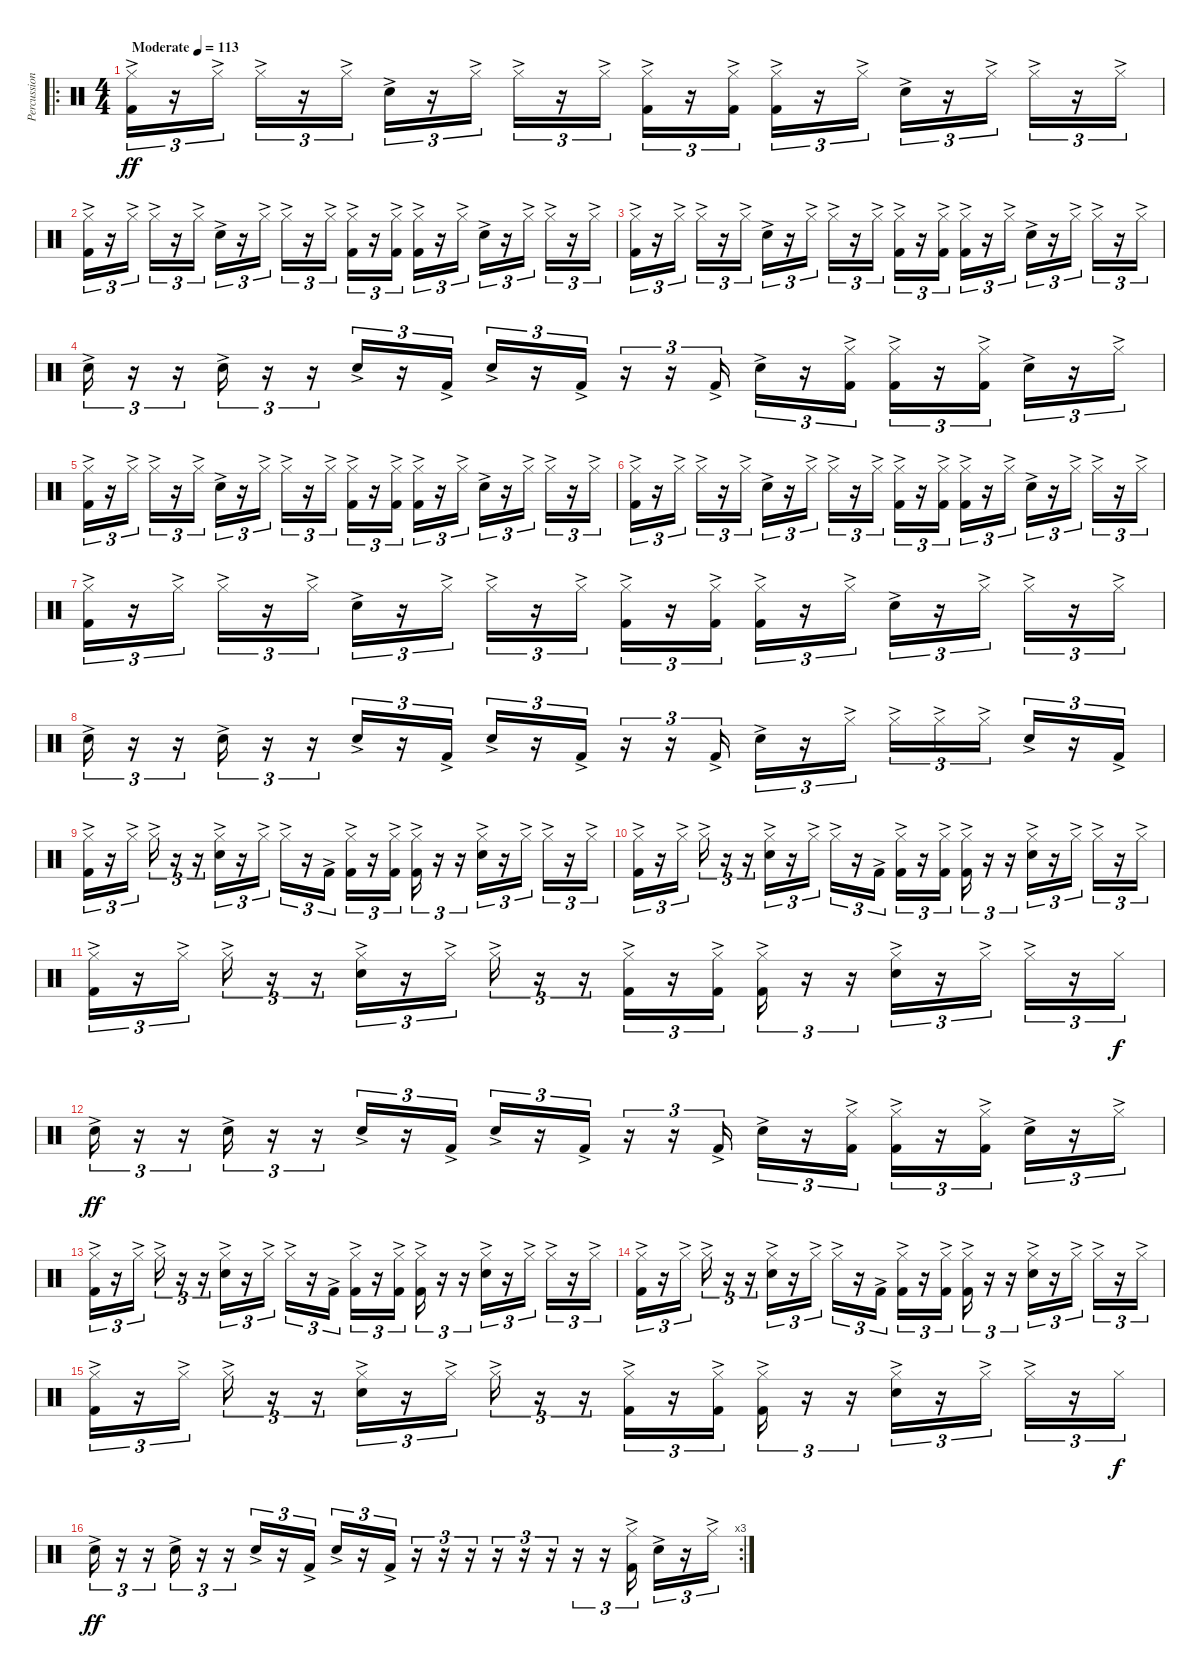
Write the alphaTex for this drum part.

\track ("Percussion" "Percussion") {instrument percussion}
\staff {score}
\articulation defaults
\ro
\ts (4 4)
\tempo (113 "Moderate")
\clef neutral
\ks c
("Hi-Hat (closed)"{ac} "Kick (hit) 2"{ac}).16{tu (3 2) dy ff} r.16{tu (3 2)} "Hi-Hat (closed)"{ac}.16{tu (3 2)} "Hi-Hat (closed)"{ac}.16{tu (3 2)} r.16{tu (3 2)} "Hi-Hat (closed)"{ac}.16{tu (3 2)} "Snare (hit) 2"{ac}.16{tu (3 2)} r.16{tu (3 2)} "Hi-Hat (closed)"{ac}.16{tu (3 2)} "Hi-Hat (closed)"{ac}.16{tu (3 2)} r.16{tu (3 2)} "Hi-Hat (closed)"{ac}.16{tu (3 2)} ("Hi-Hat (closed)"{ac} "Kick (hit) 2"{ac}).16{tu (3 2)} r.16{tu (3 2)} ("Hi-Hat (closed)"{ac} "Kick (hit) 2"{ac}).16{tu (3 2)} ("Hi-Hat (closed)"{ac} "Kick (hit) 2"{ac}).16{tu (3 2)} r.16{tu (3 2)} "Hi-Hat (closed)"{ac}.16{tu (3 2)} "Snare (hit) 2"{ac}.16{tu (3 2)} r.16{tu (3 2)} "Hi-Hat (closed)"{ac}.16{tu (3 2)} "Hi-Hat (closed)"{ac}.16{tu (3 2)} r.16{tu (3 2)} "Hi-Hat (closed)"{ac}.16{tu (3 2)} |
("Hi-Hat (closed)"{ac} "Kick (hit) 2"{ac}).16{tu (3 2)} r.16{tu (3 2)} "Hi-Hat (closed)"{ac}.16{tu (3 2)} "Hi-Hat (closed)"{ac}.16{tu (3 2)} r.16{tu (3 2)} "Hi-Hat (closed)"{ac}.16{tu (3 2)} "Snare (hit) 2"{ac}.16{tu (3 2)} r.16{tu (3 2)} "Hi-Hat (closed)"{ac}.16{tu (3 2)} "Hi-Hat (closed)"{ac}.16{tu (3 2)} r.16{tu (3 2)} "Hi-Hat (closed)"{ac}.16{tu (3 2)} ("Hi-Hat (closed)"{ac} "Kick (hit) 2"{ac}).16{tu (3 2)} r.16{tu (3 2)} ("Hi-Hat (closed)"{ac} "Kick (hit) 2"{ac}).16{tu (3 2)} ("Hi-Hat (closed)"{ac} "Kick (hit) 2"{ac}).16{tu (3 2)} r.16{tu (3 2)} "Hi-Hat (closed)"{ac}.16{tu (3 2)} "Snare (hit) 2"{ac}.16{tu (3 2)} r.16{tu (3 2)} "Hi-Hat (closed)"{ac}.16{tu (3 2)} "Hi-Hat (closed)"{ac}.16{tu (3 2)} r.16{tu (3 2)} "Hi-Hat (closed)"{ac}.16{tu (3 2)} |
("Hi-Hat (closed)"{ac} "Kick (hit) 2"{ac}).16{tu (3 2)} r.16{tu (3 2)} "Hi-Hat (closed)"{ac}.16{tu (3 2)} "Hi-Hat (closed)"{ac}.16{tu (3 2)} r.16{tu (3 2)} "Hi-Hat (closed)"{ac}.16{tu (3 2)} "Snare (hit) 2"{ac}.16{tu (3 2)} r.16{tu (3 2)} "Hi-Hat (closed)"{ac}.16{tu (3 2)} "Hi-Hat (closed)"{ac}.16{tu (3 2)} r.16{tu (3 2)} "Hi-Hat (closed)"{ac}.16{tu (3 2)} ("Hi-Hat (closed)"{ac} "Kick (hit) 2"{ac}).16{tu (3 2)} r.16{tu (3 2)} ("Hi-Hat (closed)"{ac} "Kick (hit) 2"{ac}).16{tu (3 2)} ("Hi-Hat (closed)"{ac} "Kick (hit) 2"{ac}).16{tu (3 2)} r.16{tu (3 2)} "Hi-Hat (closed)"{ac}.16{tu (3 2)} "Snare (hit) 2"{ac}.16{tu (3 2)} r.16{tu (3 2)} "Hi-Hat (closed)"{ac}.16{tu (3 2)} "Hi-Hat (closed)"{ac}.16{tu (3 2)} r.16{tu (3 2)} "Hi-Hat (closed)"{ac}.16{tu (3 2)} |
"Snare (hit) 2"{ac}.16{tu (3 2)} r.16{tu (3 2)} r.16{tu (3 2)} "Snare (hit) 2"{ac}.16{tu (3 2)} r.16{tu (3 2)} r.16{tu (3 2)} "Snare (hit) 2"{ac}.16{tu (3 2)} r.16{tu (3 2)} "Kick (hit) 2"{ac}.16{tu (3 2)} "Snare (hit) 2"{ac}.16{tu (3 2)} r.16{tu (3 2)} "Kick (hit) 2"{ac}.16{tu (3 2)} r.16{tu (3 2)} r.16{tu (3 2)} "Kick (hit) 2"{ac}.16{tu (3 2)} "Snare (hit) 2"{ac}.16{tu (3 2)} r.16{tu (3 2)} ("Hi-Hat (closed)"{ac} "Kick (hit) 2"{ac}).16{tu (3 2)} ("Hi-Hat (closed)"{ac} "Kick (hit) 2"{ac}).16{tu (3 2)} r.16{tu (3 2)} ("Hi-Hat (closed)"{ac} "Kick (hit) 2"{ac}).16{tu (3 2)} "Snare (hit) 2"{ac}.16{tu (3 2)} r.16{tu (3 2)} "Hi-Hat (closed)"{ac}.16{tu (3 2)} |
("Hi-Hat (closed)"{ac} "Kick (hit) 2"{ac}).16{tu (3 2)} r.16{tu (3 2)} "Hi-Hat (closed)"{ac}.16{tu (3 2)} "Hi-Hat (closed)"{ac}.16{tu (3 2)} r.16{tu (3 2)} "Hi-Hat (closed)"{ac}.16{tu (3 2)} "Snare (hit) 2"{ac}.16{tu (3 2)} r.16{tu (3 2)} "Hi-Hat (closed)"{ac}.16{tu (3 2)} "Hi-Hat (closed)"{ac}.16{tu (3 2)} r.16{tu (3 2)} "Hi-Hat (closed)"{ac}.16{tu (3 2)} ("Hi-Hat (closed)"{ac} "Kick (hit) 2"{ac}).16{tu (3 2)} r.16{tu (3 2)} ("Hi-Hat (closed)"{ac} "Kick (hit) 2"{ac}).16{tu (3 2)} ("Hi-Hat (closed)"{ac} "Kick (hit) 2"{ac}).16{tu (3 2)} r.16{tu (3 2)} "Hi-Hat (closed)"{ac}.16{tu (3 2)} "Snare (hit) 2"{ac}.16{tu (3 2)} r.16{tu (3 2)} "Hi-Hat (closed)"{ac}.16{tu (3 2)} "Hi-Hat (closed)"{ac}.16{tu (3 2)} r.16{tu (3 2)} "Hi-Hat (closed)"{ac}.16{tu (3 2)} |
("Hi-Hat (closed)"{ac} "Kick (hit) 2"{ac}).16{tu (3 2)} r.16{tu (3 2)} "Hi-Hat (closed)"{ac}.16{tu (3 2)} "Hi-Hat (closed)"{ac}.16{tu (3 2)} r.16{tu (3 2)} "Hi-Hat (closed)"{ac}.16{tu (3 2)} "Snare (hit) 2"{ac}.16{tu (3 2)} r.16{tu (3 2)} "Hi-Hat (closed)"{ac}.16{tu (3 2)} "Hi-Hat (closed)"{ac}.16{tu (3 2)} r.16{tu (3 2)} "Hi-Hat (closed)"{ac}.16{tu (3 2)} ("Hi-Hat (closed)"{ac} "Kick (hit) 2"{ac}).16{tu (3 2)} r.16{tu (3 2)} ("Hi-Hat (closed)"{ac} "Kick (hit) 2"{ac}).16{tu (3 2)} ("Hi-Hat (closed)"{ac} "Kick (hit) 2"{ac}).16{tu (3 2)} r.16{tu (3 2)} "Hi-Hat (closed)"{ac}.16{tu (3 2)} "Snare (hit) 2"{ac}.16{tu (3 2)} r.16{tu (3 2)} "Hi-Hat (closed)"{ac}.16{tu (3 2)} "Hi-Hat (closed)"{ac}.16{tu (3 2)} r.16{tu (3 2)} "Hi-Hat (closed)"{ac}.16{tu (3 2)} |
("Hi-Hat (closed)"{ac} "Kick (hit) 2"{ac}).16{tu (3 2)} r.16{tu (3 2)} "Hi-Hat (closed)"{ac}.16{tu (3 2)} "Hi-Hat (closed)"{ac}.16{tu (3 2)} r.16{tu (3 2)} "Hi-Hat (closed)"{ac}.16{tu (3 2)} "Snare (hit) 2"{ac}.16{tu (3 2)} r.16{tu (3 2)} "Hi-Hat (closed)"{ac}.16{tu (3 2)} "Hi-Hat (closed)"{ac}.16{tu (3 2)} r.16{tu (3 2)} "Hi-Hat (closed)"{ac}.16{tu (3 2)} ("Hi-Hat (closed)"{ac} "Kick (hit) 2"{ac}).16{tu (3 2)} r.16{tu (3 2)} ("Hi-Hat (closed)"{ac} "Kick (hit) 2"{ac}).16{tu (3 2)} ("Hi-Hat (closed)"{ac} "Kick (hit) 2"{ac}).16{tu (3 2)} r.16{tu (3 2)} "Hi-Hat (closed)"{ac}.16{tu (3 2)} "Snare (hit) 2"{ac}.16{tu (3 2)} r.16{tu (3 2)} "Hi-Hat (closed)"{ac}.16{tu (3 2)} "Hi-Hat (closed)"{ac}.16{tu (3 2)} r.16{tu (3 2)} "Hi-Hat (closed)"{ac}.16{tu (3 2)} |
"Snare (hit) 2"{ac}.16{tu (3 2)} r.16{tu (3 2)} r.16{tu (3 2)} "Snare (hit) 2"{ac}.16{tu (3 2)} r.16{tu (3 2)} r.16{tu (3 2)} "Snare (hit) 2"{ac}.16{tu (3 2)} r.16{tu (3 2)} "Kick (hit) 2"{ac}.16{tu (3 2)} "Snare (hit) 2"{ac}.16{tu (3 2)} r.16{tu (3 2)} "Kick (hit) 2"{ac}.16{tu (3 2)} r.16{tu (3 2)} r.16{tu (3 2)} "Kick (hit) 2"{ac}.16{tu (3 2)} "Snare (hit) 2"{ac}.16{tu (3 2)} r.16{tu (3 2)} "Hi-Hat (closed)"{ac}.16{tu (3 2)} "Hi-Hat (closed)"{ac}.16{tu (3 2)} "Hi-Hat (closed)"{ac}.16{tu (3 2)} "Hi-Hat (closed)"{ac}.16{tu (3 2) beam splitsecondary} "Snare (hit) 2"{ac}.16{tu (3 2)} r.16{tu (3 2)} "Kick (hit) 2"{ac}.16{tu (3 2)} |
("Hi-Hat (closed)"{ac} "Kick (hit) 2"{ac}).16{tu (3 2)} r.16{tu (3 2)} "Hi-Hat (closed)"{ac}.16{tu (3 2)} "Hi-Hat (closed)"{ac}.16{tu (3 2)} r.16{tu (3 2)} r.16{tu (3 2)} ("Hi-Hat (closed)"{ac} "Snare (hit) 2"{ac}).16{tu (3 2)} r.16{tu (3 2)} "Hi-Hat (closed)"{ac}.16{tu (3 2)} "Hi-Hat (closed)"{ac}.16{tu (3 2)} r.16{tu (3 2)} "Kick (hit) 2"{ac}.16{tu (3 2)} ("Hi-Hat (closed)"{ac} "Kick (hit) 2"{ac}).16{tu (3 2)} r.16{tu (3 2)} ("Hi-Hat (closed)"{ac} "Kick (hit) 2"{ac}).16{tu (3 2)} ("Hi-Hat (closed)"{ac} "Kick (hit) 2"{ac}).16{tu (3 2)} r.16{tu (3 2)} r.16{tu (3 2)} ("Hi-Hat (closed)"{ac} "Snare (hit) 2"{ac}).16{tu (3 2)} r.16{tu (3 2)} "Hi-Hat (closed)"{ac}.16{tu (3 2)} "Hi-Hat (closed)"{ac}.16{tu (3 2)} r.16{tu (3 2)} "Hi-Hat (closed)"{ac}.16{tu (3 2)} |
("Hi-Hat (closed)"{ac} "Kick (hit) 2"{ac}).16{tu (3 2)} r.16{tu (3 2)} "Hi-Hat (closed)"{ac}.16{tu (3 2)} "Hi-Hat (closed)"{ac}.16{tu (3 2)} r.16{tu (3 2)} r.16{tu (3 2)} ("Hi-Hat (closed)"{ac} "Snare (hit) 2"{ac}).16{tu (3 2)} r.16{tu (3 2)} "Hi-Hat (closed)"{ac}.16{tu (3 2)} "Hi-Hat (closed)"{ac}.16{tu (3 2)} r.16{tu (3 2)} "Kick (hit) 2"{ac}.16{tu (3 2)} ("Hi-Hat (closed)"{ac} "Kick (hit) 2"{ac}).16{tu (3 2)} r.16{tu (3 2)} ("Hi-Hat (closed)"{ac} "Kick (hit) 2"{ac}).16{tu (3 2)} ("Hi-Hat (closed)"{ac} "Kick (hit) 2"{ac}).16{tu (3 2)} r.16{tu (3 2)} r.16{tu (3 2)} ("Hi-Hat (closed)"{ac} "Snare (hit) 2"{ac}).16{tu (3 2)} r.16{tu (3 2)} "Hi-Hat (closed)"{ac}.16{tu (3 2)} "Hi-Hat (closed)"{ac}.16{tu (3 2)} r.16{tu (3 2)} "Hi-Hat (closed)"{ac}.16{tu (3 2)} |
("Hi-Hat (closed)"{ac} "Kick (hit) 2"{ac}).16{tu (3 2)} r.16{tu (3 2)} "Hi-Hat (closed)"{ac}.16{tu (3 2)} "Hi-Hat (closed)"{ac}.16{tu (3 2)} r.16{tu (3 2)} r.16{tu (3 2)} ("Hi-Hat (closed)"{ac} "Snare (hit) 2"{ac}).16{tu (3 2)} r.16{tu (3 2)} "Hi-Hat (closed)"{ac}.16{tu (3 2)} "Hi-Hat (closed)"{ac}.16{tu (3 2)} r.16{tu (3 2)} r.16{tu (3 2)} ("Hi-Hat (closed)"{ac} "Kick (hit) 2"{ac}).16{tu (3 2)} r.16{tu (3 2)} ("Hi-Hat (closed)"{ac} "Kick (hit) 2"{ac}).16{tu (3 2)} ("Hi-Hat (closed)"{ac} "Kick (hit) 2"{ac}).16{tu (3 2)} r.16{tu (3 2)} r.16{tu (3 2)} ("Hi-Hat (closed)"{ac} "Snare (hit) 2"{ac}).16{tu (3 2)} r.16{tu (3 2)} "Hi-Hat (closed)"{ac}.16{tu (3 2)} "Hi-Hat (closed)"{ac}.16{tu (3 2)} r.16{tu (3 2)} "Hi-Hat (closed)".16{tu (3 2) dy f} |
"Snare (hit) 2"{ac}.16{tu (3 2) dy ff} r.16{tu (3 2)} r.16{tu (3 2)} "Snare (hit) 2"{ac}.16{tu (3 2)} r.16{tu (3 2)} r.16{tu (3 2)} "Snare (hit) 2"{ac}.16{tu (3 2)} r.16{tu (3 2)} "Kick (hit) 2"{ac}.16{tu (3 2)} "Snare (hit) 2"{ac}.16{tu (3 2)} r.16{tu (3 2)} "Kick (hit) 2"{ac}.16{tu (3 2)} r.16{tu (3 2)} r.16{tu (3 2)} "Kick (hit) 2"{ac}.16{tu (3 2)} "Snare (hit) 2"{ac}.16{tu (3 2)} r.16{tu (3 2)} ("Hi-Hat (closed)"{ac} "Kick (hit) 2"{ac}).16{tu (3 2)} ("Hi-Hat (closed)"{ac} "Kick (hit) 2"{ac}).16{tu (3 2)} r.16{tu (3 2)} ("Hi-Hat (closed)"{ac} "Kick (hit) 2"{ac}).16{tu (3 2)} "Snare (hit) 2"{ac}.16{tu (3 2)} r.16{tu (3 2)} "Hi-Hat (closed)"{ac}.16{tu (3 2)} |
("Hi-Hat (closed)"{ac} "Kick (hit) 2"{ac}).16{tu (3 2)} r.16{tu (3 2)} "Hi-Hat (closed)"{ac}.16{tu (3 2)} "Hi-Hat (closed)"{ac}.16{tu (3 2)} r.16{tu (3 2)} r.16{tu (3 2)} ("Hi-Hat (closed)"{ac} "Snare (hit) 2"{ac}).16{tu (3 2)} r.16{tu (3 2)} "Hi-Hat (closed)"{ac}.16{tu (3 2)} "Hi-Hat (closed)"{ac}.16{tu (3 2)} r.16{tu (3 2)} "Kick (hit) 2"{ac}.16{tu (3 2)} ("Hi-Hat (closed)"{ac} "Kick (hit) 2"{ac}).16{tu (3 2)} r.16{tu (3 2)} ("Hi-Hat (closed)"{ac} "Kick (hit) 2"{ac}).16{tu (3 2)} ("Hi-Hat (closed)"{ac} "Kick (hit) 2"{ac}).16{tu (3 2)} r.16{tu (3 2)} r.16{tu (3 2)} ("Hi-Hat (closed)"{ac} "Snare (hit) 2"{ac}).16{tu (3 2)} r.16{tu (3 2)} "Hi-Hat (closed)"{ac}.16{tu (3 2)} "Hi-Hat (closed)"{ac}.16{tu (3 2)} r.16{tu (3 2)} "Hi-Hat (closed)"{ac}.16{tu (3 2)} |
("Hi-Hat (closed)"{ac} "Kick (hit) 2"{ac}).16{tu (3 2)} r.16{tu (3 2)} "Hi-Hat (closed)"{ac}.16{tu (3 2)} "Hi-Hat (closed)"{ac}.16{tu (3 2)} r.16{tu (3 2)} r.16{tu (3 2)} ("Hi-Hat (closed)"{ac} "Snare (hit) 2"{ac}).16{tu (3 2)} r.16{tu (3 2)} "Hi-Hat (closed)"{ac}.16{tu (3 2)} "Hi-Hat (closed)"{ac}.16{tu (3 2)} r.16{tu (3 2)} "Kick (hit) 2"{ac}.16{tu (3 2)} ("Hi-Hat (closed)"{ac} "Kick (hit) 2"{ac}).16{tu (3 2)} r.16{tu (3 2)} ("Hi-Hat (closed)"{ac} "Kick (hit) 2"{ac}).16{tu (3 2)} ("Hi-Hat (closed)"{ac} "Kick (hit) 2"{ac}).16{tu (3 2)} r.16{tu (3 2)} r.16{tu (3 2)} ("Hi-Hat (closed)"{ac} "Snare (hit) 2"{ac}).16{tu (3 2)} r.16{tu (3 2)} "Hi-Hat (closed)"{ac}.16{tu (3 2)} "Hi-Hat (closed)"{ac}.16{tu (3 2)} r.16{tu (3 2)} "Hi-Hat (closed)"{ac}.16{tu (3 2)} |
("Hi-Hat (closed)"{ac} "Kick (hit) 2"{ac}).16{tu (3 2)} r.16{tu (3 2)} "Hi-Hat (closed)"{ac}.16{tu (3 2)} "Hi-Hat (closed)"{ac}.16{tu (3 2)} r.16{tu (3 2)} r.16{tu (3 2)} ("Hi-Hat (closed)"{ac} "Snare (hit) 2"{ac}).16{tu (3 2)} r.16{tu (3 2)} "Hi-Hat (closed)"{ac}.16{tu (3 2)} "Hi-Hat (closed)"{ac}.16{tu (3 2)} r.16{tu (3 2)} r.16{tu (3 2)} ("Hi-Hat (closed)"{ac} "Kick (hit) 2"{ac}).16{tu (3 2)} r.16{tu (3 2)} ("Hi-Hat (closed)"{ac} "Kick (hit) 2"{ac}).16{tu (3 2)} ("Hi-Hat (closed)"{ac} "Kick (hit) 2"{ac}).16{tu (3 2)} r.16{tu (3 2)} r.16{tu (3 2)} ("Hi-Hat (closed)"{ac} "Snare (hit) 2"{ac}).16{tu (3 2)} r.16{tu (3 2)} "Hi-Hat (closed)"{ac}.16{tu (3 2)} "Hi-Hat (closed)"{ac}.16{tu (3 2)} r.16{tu (3 2)} "Hi-Hat (closed)".16{tu (3 2) dy f} |
\rc 3 "Snare (hit) 2"{ac}.16{tu (3 2) dy ff}
r.16{tu (3 2)} r.16{tu (3 2)} "Snare (hit) 2"{ac}.16{tu (3 2)} r.16{tu (3 2)} r.16{tu (3 2)} "Snare (hit) 2"{ac}.16{tu (3 2)} r.16{tu (3 2)} "Kick (hit) 2"{ac}.16{tu (3 2)} "Snare (hit) 2"{ac}.16{tu (3 2)} r.16{tu (3 2)} "Kick (hit) 2"{ac}.16{tu (3 2)} r.16{tu (3 2)} r.16{tu (3 2)} r.16{tu (3 2)} r.16{tu (3 2)} r.16{tu (3 2)} r.16{tu (3 2)} r.16{tu (3 2)} r.16{tu (3 2)} ("Hi-Hat (closed)"{ac} "Kick (hit) 2"{ac}).16{tu (3 2)} "Snare (hit) 2"{ac}.16{tu (3 2)} r.16{tu (3 2)} "Hi-Hat (closed)"{ac}.16{tu (3 2)}
